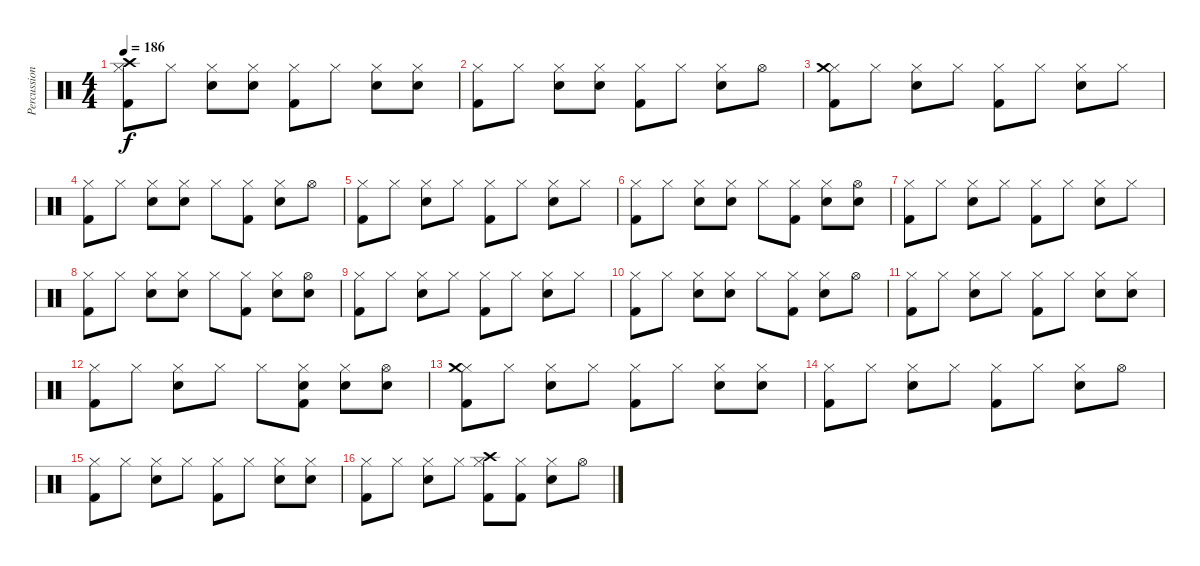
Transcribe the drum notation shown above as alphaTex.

\track ("Percussions" "Percussion") {instrument percussion}
\staff {score}
\articulation defaults
\ts (4 4)
\tempo 186
\clef neutral
\ks c
("Hi-Hat (closed)" "Crash high (hit)" "Kick (hit) 2").8{dy f} "Hi-Hat (closed)".8 ("Hi-Hat (closed)" "Electric Snare (hit)").8 ("Hi-Hat (closed)" "Electric Snare (hit)").8 ("Hi-Hat (closed)" "Kick (hit) 2").8 "Hi-Hat (closed)".8 ("Hi-Hat (closed)" "Electric Snare (hit)").8 ("Hi-Hat (closed)" "Electric Snare (hit)").8 |
("Hi-Hat (closed)" "Kick (hit) 2").8 "Hi-Hat (closed)".8 ("Hi-Hat (closed)" "Electric Snare (hit)").8 ("Hi-Hat (closed)" "Electric Snare (hit)").8 ("Hi-Hat (closed)" "Kick (hit) 2").8 "Hi-Hat (closed)".8 ("Hi-Hat (closed)" "Electric Snare (hit)").8 "Hi-Hat (open)".8 |
("Hi-Hat (closed)" "Crash medium (hit)" "Kick (hit) 2").8 "Hi-Hat (closed)".8 ("Hi-Hat (closed)" "Electric Snare (hit)").8 "Hi-Hat (closed)".8 ("Hi-Hat (closed)" "Kick (hit) 2").8 "Hi-Hat (closed)".8 ("Hi-Hat (closed)" "Electric Snare (hit)").8 "Hi-Hat (closed)".8 |
("Hi-Hat (closed)" "Kick (hit) 2").8 "Hi-Hat (closed)".8 ("Hi-Hat (closed)" "Electric Snare (hit)").8 ("Hi-Hat (closed)" "Electric Snare (hit)").8 "Hi-Hat (closed)".8 ("Hi-Hat (closed)" "Kick (hit) 2").8 ("Hi-Hat (closed)" "Electric Snare (hit)").8 "Hi-Hat (open)".8 |
("Hi-Hat (closed)" "Kick (hit) 2").8 "Hi-Hat (closed)".8 ("Hi-Hat (closed)" "Electric Snare (hit)").8 "Hi-Hat (closed)".8 ("Hi-Hat (closed)" "Kick (hit) 2").8 "Hi-Hat (closed)".8 ("Hi-Hat (closed)" "Electric Snare (hit)").8 "Hi-Hat (closed)".8 |
("Hi-Hat (closed)" "Kick (hit) 2").8 "Hi-Hat (closed)".8 ("Hi-Hat (closed)" "Electric Snare (hit)").8 ("Hi-Hat (closed)" "Electric Snare (hit)").8 "Hi-Hat (closed)".8 ("Hi-Hat (closed)" "Kick (hit) 2").8 ("Hi-Hat (closed)" "Electric Snare (hit)").8 ("Hi-Hat (open)" "Electric Snare (hit)").8 |
("Hi-Hat (closed)" "Kick (hit) 2").8 "Hi-Hat (closed)".8 ("Hi-Hat (closed)" "Electric Snare (hit)").8 "Hi-Hat (closed)".8 ("Hi-Hat (closed)" "Kick (hit) 2").8 "Hi-Hat (closed)".8 ("Hi-Hat (closed)" "Electric Snare (hit)").8 "Hi-Hat (closed)".8 |
("Hi-Hat (closed)" "Kick (hit) 2").8 "Hi-Hat (closed)".8 ("Hi-Hat (closed)" "Electric Snare (hit)").8 ("Hi-Hat (closed)" "Electric Snare (hit)").8 "Hi-Hat (closed)".8 ("Hi-Hat (closed)" "Kick (hit) 2").8 ("Hi-Hat (closed)" "Electric Snare (hit)").8 ("Hi-Hat (open)" "Electric Snare (hit)").8 |
("Hi-Hat (closed)" "Kick (hit) 2").8 "Hi-Hat (closed)".8 ("Hi-Hat (closed)" "Electric Snare (hit)").8 "Hi-Hat (closed)".8 ("Hi-Hat (closed)" "Kick (hit) 2").8 "Hi-Hat (closed)".8 ("Hi-Hat (closed)" "Electric Snare (hit)").8 "Hi-Hat (closed)".8 |
("Hi-Hat (closed)" "Kick (hit) 2").8 "Hi-Hat (closed)".8 ("Hi-Hat (closed)" "Electric Snare (hit)").8 ("Hi-Hat (closed)" "Electric Snare (hit)").8 "Hi-Hat (closed)".8 ("Hi-Hat (closed)" "Kick (hit) 2").8 ("Hi-Hat (closed)" "Electric Snare (hit)").8 "Hi-Hat (open)".8 |
("Hi-Hat (closed)" "Kick (hit) 2").8 "Hi-Hat (closed)".8 ("Hi-Hat (closed)" "Electric Snare (hit)").8 "Hi-Hat (closed)".8 ("Hi-Hat (closed)" "Kick (hit) 2").8 "Hi-Hat (closed)".8 ("Hi-Hat (closed)" "Electric Snare (hit)").8 ("Hi-Hat (closed)" "Electric Snare (hit)").8 |
("Hi-Hat (closed)" "Kick (hit) 2").8 "Hi-Hat (closed)".8 ("Hi-Hat (closed)" "Electric Snare (hit)").8 "Hi-Hat (closed)".8 "Hi-Hat (closed)".8 ("Hi-Hat (closed)" "Electric Snare (hit)" "Kick (hit) 2").8 ("Hi-Hat (closed)" "Electric Snare (hit)").8 ("Hi-Hat (open)" "Electric Snare (hit)").8 |
("Hi-Hat (closed)" "Crash medium (hit)" "Kick (hit) 2").8 "Hi-Hat (closed)".8 ("Hi-Hat (closed)" "Electric Snare (hit)").8 "Hi-Hat (closed)".8 ("Hi-Hat (closed)" "Kick (hit) 2").8 "Hi-Hat (closed)".8 ("Hi-Hat (closed)" "Electric Snare (hit)").8 ("Hi-Hat (closed)" "Electric Snare (hit)").8 |
("Hi-Hat (closed)" "Kick (hit) 2").8 "Hi-Hat (closed)".8 ("Hi-Hat (closed)" "Electric Snare (hit)").8 "Hi-Hat (closed)".8 ("Hi-Hat (closed)" "Kick (hit) 2").8 "Hi-Hat (closed)".8 ("Hi-Hat (closed)" "Electric Snare (hit)").8 "Hi-Hat (open)".8 |
("Hi-Hat (closed)" "Kick (hit) 2").8 "Hi-Hat (closed)".8 ("Hi-Hat (closed)" "Electric Snare (hit)").8 "Hi-Hat (closed)".8 ("Hi-Hat (closed)" "Kick (hit) 2").8 "Hi-Hat (closed)".8 ("Hi-Hat (closed)" "Electric Snare (hit)").8 ("Hi-Hat (closed)" "Electric Snare (hit)").8 |
("Hi-Hat (closed)" "Kick (hit) 2").8 "Hi-Hat (closed)".8 ("Hi-Hat (closed)" "Electric Snare (hit)").8 "Hi-Hat (closed)".8 ("Hi-Hat (closed)" "Crash high (hit)" "Kick (hit) 2").8 ("Hi-Hat (closed)" "Kick (hit) 2").8 ("Hi-Hat (closed)" "Electric Snare (hit)").8 "Hi-Hat (open)".8
